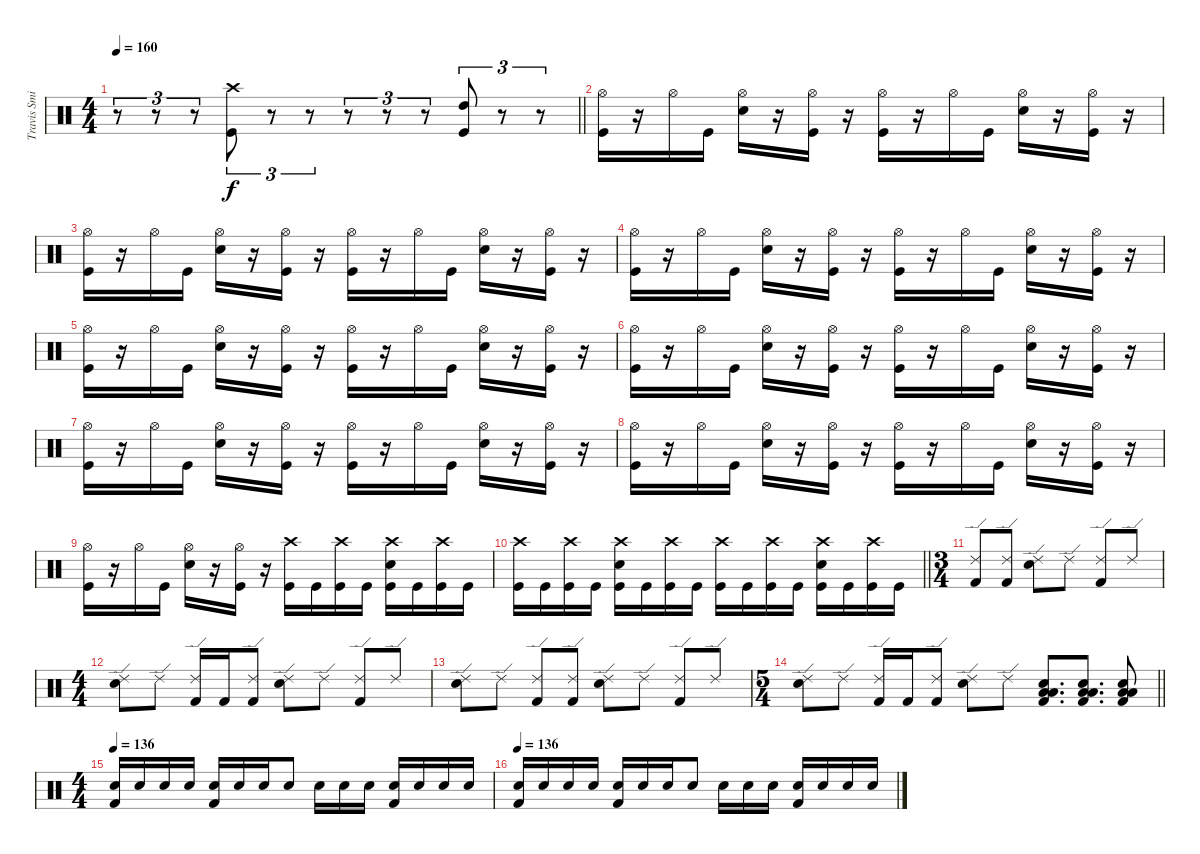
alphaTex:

\track ("Travis Smith" "Travis Smi") {instrument percussion}
\staff {score}
\articulation defaults
\ts (4 4)
\tempo 160
\clef neutral
\barLineRight lightlight
\ks c
r.8{tu (3 2) dy f} r.8{tu (3 2)} r.8{tu (3 2)} ("Crash high (hit)" "Kick (hit)").8{tu (3 2)} r.8{tu (3 2)} r.8{tu (3 2)} r.8{tu (3 2)} r.8{tu (3 2)} r.8{tu (3 2)} ("High Tom (hit)" "Kick (hit)").8{tu (3 2)} r.8{tu (3 2)} r.8{tu (3 2)} |
\section ("" "")
("Hi-Hat (open)" "Kick (hit)").16 r.16 "Hi-Hat (open)".16 "Kick (hit)".16 ("Hi-Hat (open)" "Electric Snare (hit)").16 r.16 ("Hi-Hat (open)" "Kick (hit)").16 r.16 ("Hi-Hat (open)" "Kick (hit)").16 r.16 "Hi-Hat (open)".16 "Kick (hit)".16 ("Hi-Hat (open)" "Electric Snare (hit)").16 r.16 ("Hi-Hat (open)" "Kick (hit)").16 r.16 |
("Hi-Hat (open)" "Kick (hit)").16 r.16 "Hi-Hat (open)".16 "Kick (hit)".16 ("Hi-Hat (open)" "Electric Snare (hit)").16 r.16 ("Hi-Hat (open)" "Kick (hit)").16 r.16 ("Hi-Hat (open)" "Kick (hit)").16 r.16 "Hi-Hat (open)".16 "Kick (hit)".16 ("Hi-Hat (open)" "Electric Snare (hit)").16 r.16 ("Hi-Hat (open)" "Kick (hit)").16 r.16 |
("Hi-Hat (open)" "Kick (hit)").16 r.16 "Hi-Hat (open)".16 "Kick (hit)".16 ("Hi-Hat (open)" "Electric Snare (hit)").16 r.16 ("Hi-Hat (open)" "Kick (hit)").16 r.16 ("Hi-Hat (open)" "Kick (hit)").16 r.16 "Hi-Hat (open)".16 "Kick (hit)".16 ("Hi-Hat (open)" "Electric Snare (hit)").16 r.16 ("Hi-Hat (open)" "Kick (hit)").16 r.16 |
("Hi-Hat (open)" "Kick (hit)").16 r.16 "Hi-Hat (open)".16 "Kick (hit)".16 ("Hi-Hat (open)" "Electric Snare (hit)").16 r.16 ("Hi-Hat (open)" "Kick (hit)").16 r.16 ("Hi-Hat (open)" "Kick (hit)").16 r.16 "Hi-Hat (open)".16 "Kick (hit)".16 ("Hi-Hat (open)" "Electric Snare (hit)").16 r.16 ("Hi-Hat (open)" "Kick (hit)").16 r.16 |
("Hi-Hat (open)" "Kick (hit)").16 r.16 "Hi-Hat (open)".16 "Kick (hit)".16 ("Hi-Hat (open)" "Electric Snare (hit)").16 r.16 ("Hi-Hat (open)" "Kick (hit)").16 r.16 ("Hi-Hat (open)" "Kick (hit)").16 r.16 "Hi-Hat (open)".16 "Kick (hit)".16 ("Hi-Hat (open)" "Electric Snare (hit)").16 r.16 ("Hi-Hat (open)" "Kick (hit)").16 r.16 |
("Hi-Hat (open)" "Kick (hit)").16 r.16 "Hi-Hat (open)".16 "Kick (hit)".16 ("Hi-Hat (open)" "Electric Snare (hit)").16 r.16 ("Hi-Hat (open)" "Kick (hit)").16 r.16 ("Hi-Hat (open)" "Kick (hit)").16 r.16 "Hi-Hat (open)".16 "Kick (hit)".16 ("Hi-Hat (open)" "Electric Snare (hit)").16 r.16 ("Hi-Hat (open)" "Kick (hit)").16 r.16 |
("Hi-Hat (open)" "Kick (hit)").16 r.16 "Hi-Hat (open)".16 "Kick (hit)".16 ("Hi-Hat (open)" "Electric Snare (hit)").16 r.16 ("Hi-Hat (open)" "Kick (hit)").16 r.16 ("Hi-Hat (open)" "Kick (hit)").16 r.16 "Hi-Hat (open)".16 "Kick (hit)".16 ("Hi-Hat (open)" "Electric Snare (hit)").16 r.16 ("Hi-Hat (open)" "Kick (hit)").16 r.16 |
("Hi-Hat (open)" "Kick (hit)").16 r.16 "Hi-Hat (open)".16 "Kick (hit)".16 ("Hi-Hat (open)" "Electric Snare (hit)").16 r.16 ("Hi-Hat (open)" "Kick (hit)").16 r.16 ("Crash high (hit)" "Kick (hit)").16 "Kick (hit)".16 ("Crash high (hit)" "Kick (hit)").16 "Kick (hit)".16 ("Crash high (hit)" "Electric Snare (hit)" "Kick (hit)").16 "Kick (hit)".16 ("Crash high (hit)" "Kick (hit)").16 "Kick (hit)".16 |
\barLineRight lightlight
("Crash high (hit)" "Kick (hit)").16 "Kick (hit)".16 ("Crash high (hit)" "Kick (hit)").16 "Kick (hit)".16 ("Crash high (hit)" "Electric Snare (hit)" "Kick (hit)").16 "Kick (hit)".16 ("Crash high (hit)" "Kick (hit)").16 "Kick (hit)".16 ("Crash high (hit)" "Kick (hit)").16 "Kick (hit)".16 ("Crash high (hit)" "Kick (hit)").16 "Kick (hit)".16 ("Crash high (hit)" "Electric Snare (hit)" "Kick (hit)").16 "Kick (hit)".16 ("Crash high (hit)" "Kick (hit)").16 "Kick (hit)".16 |
\ts (3 4)
\section ("" "")
("Ride (edge) 2" "Kick (hit) 2").8 ("Ride (edge) 2" "Kick (hit) 2").8 ("Ride (edge) 2" "Snare (hit) 2").8 "Ride (edge) 2".8 ("Ride (edge) 2" "Kick (hit) 2").8 "Ride (edge) 2".8 |
\ts (4 4)
("Ride (edge) 2" "Snare (hit) 2").8 "Ride (edge) 2".8 ("Ride (edge) 2" "Kick (hit) 2").16 "Kick (hit) 2".16 ("Ride (edge) 2" "Kick (hit) 2").8 ("Ride (edge) 2" "Snare (hit) 2").8 "Ride (edge) 2".8 ("Ride (edge) 2" "Kick (hit) 2").8 "Ride (edge) 2".8 |
("Ride (edge) 2" "Snare (hit) 2").8 "Ride (edge) 2".8 ("Ride (edge) 2" "Kick (hit) 2").8 ("Ride (edge) 2" "Kick (hit) 2").8 ("Ride (edge) 2" "Snare (hit) 2").8 "Ride (edge) 2".8 ("Ride (edge) 2" "Kick (hit) 2").8 "Ride (edge) 2".8 |
\ts (5 4)
\barLineRight lightlight
("Ride (edge) 2" "Snare (hit) 2").8 "Ride (edge) 2".8 ("Ride (edge) 2" "Kick (hit) 2").16 "Kick (hit) 2".16 ("Ride (edge) 2" "Kick (hit) 2").8 ("Ride (edge) 2" "Snare (hit) 2").8 "Ride (edge) 2".8 ("Snare (hit) 2" "Low Floor Tom (hit)" "Low Tom (hit)" "Kick (hit) 2").8{d} ("Snare (hit) 2" "Low Tom (hit)" "Low Floor Tom (hit)" "Kick (hit) 2").8{d} ("Snare (hit) 2" "Low Tom (hit)" "Low Floor Tom (hit)" "Kick (hit) 2").8 |
\ts (4 4)
\section ("" "")
\tempo 136
("Kick (hit) 2" "Snare (hit) 2").16 "Snare (hit) 2".16 "Snare (hit) 2".16 "Snare (hit) 2".16 ("Kick (hit) 2" "Snare (hit) 2").16 "Snare (hit) 2".16 "Snare (hit) 2".16 "Snare (hit) 2".8 "Snare (hit) 2".16 "Snare (hit) 2".16 "Snare (hit) 2".16 ("Kick (hit) 2" "Snare (hit) 2").16 "Snare (hit) 2".16 "Snare (hit) 2".16 "Snare (hit) 2".16 |
\tempo 136
("Kick (hit) 2" "Snare (hit) 2").16 "Snare (hit) 2".16 "Snare (hit) 2".16 "Snare (hit) 2".16 ("Kick (hit) 2" "Snare (hit) 2").16 "Snare (hit) 2".16 "Snare (hit) 2".16 "Snare (hit) 2".8 "Snare (hit) 2".16 "Snare (hit) 2".16 "Snare (hit) 2".16 ("Kick (hit) 2" "Snare (hit) 2").16 "Snare (hit) 2".16 "Snare (hit) 2".16 "Snare (hit) 2".16
